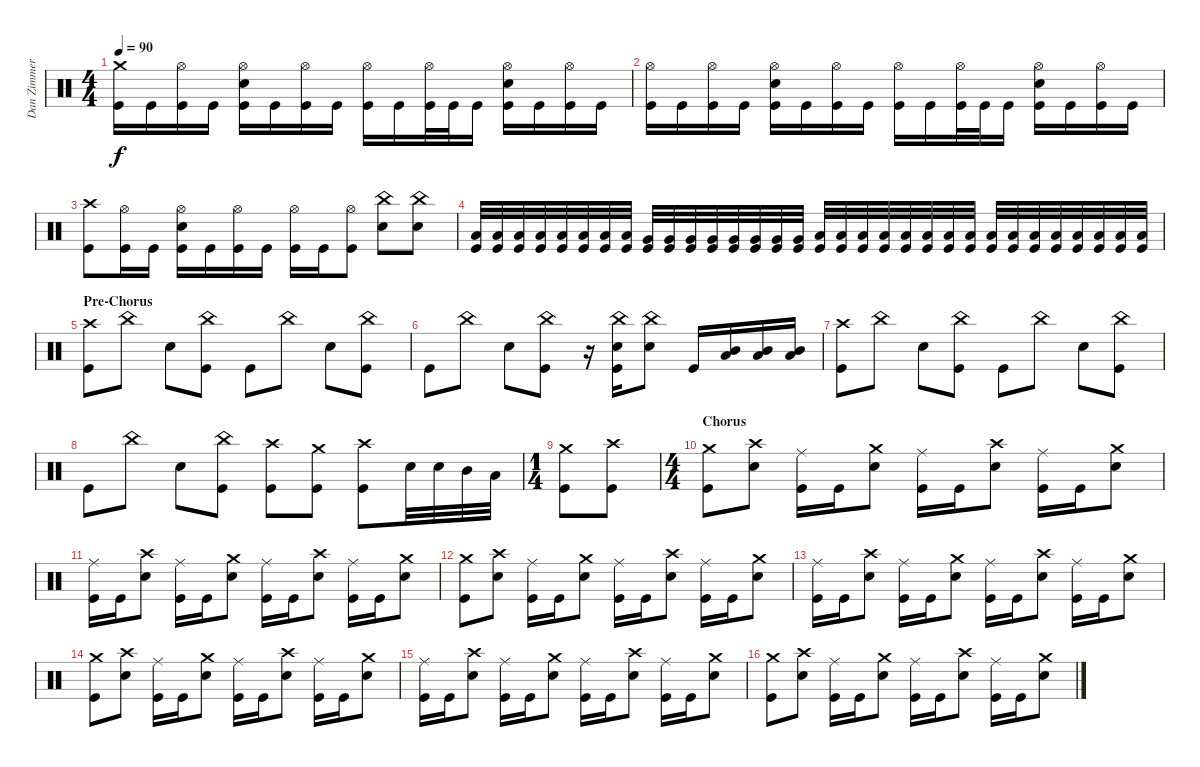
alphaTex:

\track ("Dan Zimmerman" "Dan Zimmer") {instrument percussion}
\staff {score}
\articulation defaults
\ts (4 4)
\tempo 90
\clef neutral
\ks c
("Crash medium (hit)" "Kick (hit)").16{dy f} "Kick (hit)".16 ("Hi-Hat (open)" "Kick (hit)").16 "Kick (hit)".16 ("Hi-Hat (open)" "Snare (hit) 2" "Kick (hit)").16 "Kick (hit)".16 ("Hi-Hat (open)" "Kick (hit)").16 "Kick (hit)".16 ("Hi-Hat (open)" "Kick (hit)").16 "Kick (hit)".16 ("Hi-Hat (open)" "Kick (hit)").32 "Kick (hit)".32 "Kick (hit)".16 ("Hi-Hat (open)" "Snare (hit) 2" "Kick (hit)").16 "Kick (hit)".16 ("Hi-Hat (open)" "Kick (hit)").16 "Kick (hit)".16 |
("Hi-Hat (open)" "Kick (hit)").16 "Kick (hit)".16 ("Hi-Hat (open)" "Kick (hit)").16 "Kick (hit)".16 ("Hi-Hat (open)" "Snare (hit) 2" "Kick (hit)").16 "Kick (hit)".16 ("Hi-Hat (open)" "Kick (hit)").16 "Kick (hit)".16 ("Hi-Hat (open)" "Kick (hit)").16 "Kick (hit)".16 ("Hi-Hat (open)" "Kick (hit)").32 "Kick (hit)".32 "Kick (hit)".16 ("Hi-Hat (open)" "Snare (hit) 2" "Kick (hit)").16 "Kick (hit)".16 ("Hi-Hat (open)" "Kick (hit)").16 "Kick (hit)".16 |
("Crash high (hit)" "Kick (hit)").8 ("Hi-Hat (open)" "Kick (hit)").16 "Kick (hit)".16 ("Hi-Hat (open)" "Snare (hit) 2" "Kick (hit)").16 "Kick (hit)".16 ("Hi-Hat (open)" "Kick (hit)").16 "Kick (hit)".16 ("Hi-Hat (open)" "Kick (hit)").16 "Kick (hit)".16 ("Hi-Hat (open)" "Kick (hit)").8 ("China (hit)" "Snare (hit) 2").8 ("China (hit)" "Snare (hit) 2").8 |
("Low Tom (hit)" "Kick (hit)").32 ("Low Tom (hit)" "Kick (hit)").32 ("Low Tom (hit)" "Kick (hit)").32 ("Low Tom (hit)" "Kick (hit)").32 ("Low Tom (hit)" "Kick (hit)").32 ("Low Tom (hit)" "Kick (hit)").32 ("Low Tom (hit)" "Kick (hit)").32 ("Low Tom (hit)" "Kick (hit)").32 ("Very Low Tom (hit)" "Kick (hit)").32 ("Very Low Tom (hit)" "Kick (hit)").32 ("Very Low Tom (hit)" "Kick (hit)").32 ("Very Low Tom (hit)" "Kick (hit)").32 ("Very Low Tom (hit)" "Kick (hit)").32 ("Very Low Tom (hit)" "Kick (hit)").32 ("Very Low Tom (hit)" "Kick (hit)").32 ("Very Low Tom (hit)" "Kick (hit)").32 ("Low Floor Tom (hit)" "Kick (hit)").32 ("Low Floor Tom (hit)" "Kick (hit)").32 ("Low Floor Tom (hit)" "Kick (hit)").32 ("Low Floor Tom (hit)" "Kick (hit)").32 ("Low Floor Tom (hit)" "Kick (hit)").32 ("Low Floor Tom (hit)" "Kick (hit)").32 ("Low Floor Tom (hit)" "Kick (hit)").32 ("Low Floor Tom (hit)" "Kick (hit)").32 ("Low Floor Tom (hit)" "Kick (hit)").32 ("Low Floor Tom (hit)" "Kick (hit)").32 ("Low Floor Tom (hit)" "Kick (hit)").32 ("Low Floor Tom (hit)" "Kick (hit)").32 ("Low Floor Tom (hit)" "Kick (hit)").32 ("Low Floor Tom (hit)" "Kick (hit)").32 ("Low Floor Tom (hit)" "Kick (hit)").32 ("Low Floor Tom (hit)" "Kick (hit)").32 |
\section ("" "Pre-Chorus")
("Crash high (hit)" "Kick (hit)").8 "China (hit)".8 "Snare (hit) 2".8 ("China (hit)" "Kick (hit)").8 "Kick (hit)".8 "China (hit)".8 "Snare (hit) 2".8 ("China (hit)" "Kick (hit)").8 |
"Kick (hit)".8 "China (hit)".8 "Snare (hit) 2".8 ("China (hit)" "Kick (hit)").8 r.16 ("China (hit)" "Snare (hit) 2" "Kick (hit)").16 ("China (hit)" "Snare (hit) 2").8 "Kick (hit)".16 ("Mid Tom (hit)" "Low Tom (hit)").16 ("Mid Tom (hit)" "Low Tom (hit)").16 ("Mid Tom (hit)" "Low Tom (hit)").16 |
("Crash high (hit)" "Kick (hit)").8 "China (hit)".8 "Snare (hit) 2".8 ("China (hit)" "Kick (hit)").8 "Kick (hit)".8 "China (hit)".8 "Snare (hit) 2".8 ("China (hit)" "Kick (hit)").8 |
"Kick (hit)".8 "China (hit)".8 "Snare (hit) 2".8 ("China (hit)" "Kick (hit)").8 ("Crash high (hit)" "Kick (hit)").8 ("Crash medium (hit)" "Kick (hit)").8 ("Crash high (hit)" "Kick (hit)").8 "Snare (hit) 2".32 "Snare (hit) 2".32 "Mid Tom (hit)".32 "Low Tom (hit)".32 |
\ts (1 4)
("Crash medium (hit)" "Kick (hit)").8 ("Crash high (hit)" "Kick (hit)").8 |
\ts (4 4)
\section ("" "Chorus")
("Crash medium (hit)" "Kick (hit)").8 ("Crash high (hit)" "Snare (hit) 2").8 ("Ride (middle)" "Kick (hit)").16 "Kick (hit)".16 ("Crash medium (hit)" "Snare (hit) 2").8 ("Ride (middle)" "Kick (hit)").16 "Kick (hit)".16 ("Crash high (hit)" "Snare (hit) 2").8 ("Ride (middle)" "Kick (hit)").16 "Kick (hit)".16 ("Crash medium (hit)" "Snare (hit) 2").8 |
("Ride (middle)" "Kick (hit)").16 "Kick (hit)".16 ("Crash high (hit)" "Snare (hit) 2").8 ("Ride (middle)" "Kick (hit)").16 "Kick (hit)".16 ("Crash medium (hit)" "Snare (hit) 2").8 ("Ride (middle)" "Kick (hit)").16 "Kick (hit)".16 ("Crash high (hit)" "Snare (hit) 2").8 ("Ride (middle)" "Kick (hit)").16 "Kick (hit)".16 ("Crash medium (hit)" "Snare (hit) 2").8 |
("Crash medium (hit)" "Kick (hit)").8 ("Crash high (hit)" "Snare (hit) 2").8 ("Ride (middle)" "Kick (hit)").16 "Kick (hit)".16 ("Crash medium (hit)" "Snare (hit) 2").8 ("Ride (middle)" "Kick (hit)").16 "Kick (hit)".16 ("Crash high (hit)" "Snare (hit) 2").8 ("Ride (middle)" "Kick (hit)").16 "Kick (hit)".16 ("Crash medium (hit)" "Snare (hit) 2").8 |
("Ride (middle)" "Kick (hit)").16 "Kick (hit)".16 ("Crash high (hit)" "Snare (hit) 2").8 ("Ride (middle)" "Kick (hit)").16 "Kick (hit)".16 ("Crash medium (hit)" "Snare (hit) 2").8 ("Ride (middle)" "Kick (hit)").16 "Kick (hit)".16 ("Crash high (hit)" "Snare (hit) 2").8 ("Ride (middle)" "Kick (hit)").16 "Kick (hit)".16 ("Crash medium (hit)" "Snare (hit) 2").8 |
("Crash medium (hit)" "Kick (hit)").8 ("Crash high (hit)" "Snare (hit) 2").8 ("Ride (middle)" "Kick (hit)").16 "Kick (hit)".16 ("Crash medium (hit)" "Snare (hit) 2").8 ("Ride (middle)" "Kick (hit)").16 "Kick (hit)".16 ("Crash high (hit)" "Snare (hit) 2").8 ("Ride (middle)" "Kick (hit)").16 "Kick (hit)".16 ("Crash medium (hit)" "Snare (hit) 2").8 |
("Ride (middle)" "Kick (hit)").16 "Kick (hit)".16 ("Crash high (hit)" "Snare (hit) 2").8 ("Ride (middle)" "Kick (hit)").16 "Kick (hit)".16 ("Crash medium (hit)" "Snare (hit) 2").8 ("Ride (middle)" "Kick (hit)").16 "Kick (hit)".16 ("Crash high (hit)" "Snare (hit) 2").8 ("Ride (middle)" "Kick (hit)").16 "Kick (hit)".16 ("Crash medium (hit)" "Snare (hit) 2").8 |
("Crash medium (hit)" "Kick (hit)").8 ("Crash high (hit)" "Snare (hit) 2").8 ("Ride (middle)" "Kick (hit)").16 "Kick (hit)".16 ("Crash medium (hit)" "Snare (hit) 2").8 ("Ride (middle)" "Kick (hit)").16 "Kick (hit)".16 ("Crash high (hit)" "Snare (hit) 2").8 ("Ride (middle)" "Kick (hit)").16 "Kick (hit)".16 ("Crash medium (hit)" "Snare (hit) 2").8
